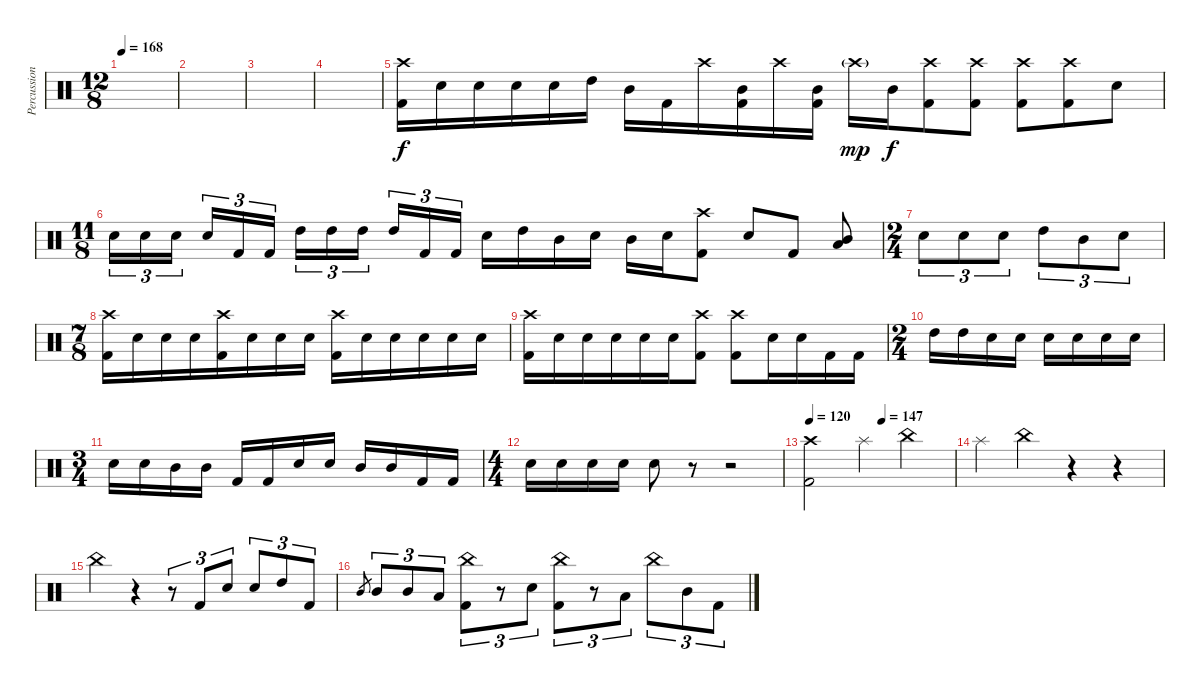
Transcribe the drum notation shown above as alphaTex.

\track ("Percussion" "Percussion") {instrument percussion}
\staff {score}
\articulation defaults
\ts (12 8)
\tempo 168
\clef neutral
\ks c
|
|
|
|
("Kick (hit) 2" "Crash high (hit)").16{volume 13} "Electric Snare (hit)".16 "Electric Snare (hit)".16 "Electric Snare (hit)".16 "Electric Snare (hit)".16 "High Tom (hit)".16 "Mid Tom (hit)".16 "Kick (hit) 2".16 "Crash high (hit)".16 ("Kick (hit) 2" "Mid Tom (hit)").16 "Crash high (hit)".16 ("Kick (hit) 2" "Mid Tom (hit)").16 "Crash high (hit)"{g}.16{dy mp} "Mid Tom (hit)".16{dy f} ("Crash high (hit)" "Kick (hit) 2").8 ("Crash high (hit)" "Kick (hit) 2").8 ("Crash high (hit)" "Kick (hit) 2").8 ("Crash high (hit)" "Kick (hit) 2").8 "Electric Snare (hit)".8 |
\ts (11 8)
"Electric Snare (hit)".16{tu (3 2)} "Electric Snare (hit)".16{tu (3 2)} "Electric Snare (hit)".16{tu (3 2)} "Electric Snare (hit)".16{tu (3 2)} "Kick (hit) 2".16{tu (3 2)} "Kick (hit) 2".16{tu (3 2)} "High Tom (hit)".16{tu (3 2)} "High Tom (hit)".16{tu (3 2)} "High Tom (hit)".16{tu (3 2)} "High Tom (hit)".16{tu (3 2)} "Kick (hit) 2".16{tu (3 2)} "Kick (hit) 2".16{tu (3 2)} "Electric Snare (hit)".16 "High Tom (hit)".16 "Mid Tom (hit)".16 "Electric Snare (hit)".16 "Mid Tom (hit)".16 "Electric Snare (hit)".16 ("Crash high (hit)" "Kick (hit) 2").8 "Electric Snare (hit)".8 "Kick (hit) 2".8 ("Mid Tom (hit)" "Low Tom (hit)").8 |
\ts (2 4)
"Electric Snare (hit)".8{tu (3 2)} "Electric Snare (hit)".8{tu (3 2)} "Electric Snare (hit)".8{tu (3 2)} "High Tom (hit)".8{tu (3 2)} "Mid Tom (hit)".8{tu (3 2)} "Electric Snare (hit)".8{tu (3 2)} |
\ts (7 8)
("Crash high (hit)" "Kick (hit) 2").16 "Electric Snare (hit)".16 "Electric Snare (hit)".16 "Electric Snare (hit)".16 ("Crash high (hit)" "Kick (hit) 2").16 "Electric Snare (hit)".16 "Electric Snare (hit)".16 "Electric Snare (hit)".16 ("Crash high (hit)" "Kick (hit) 2").16 "Electric Snare (hit)".16 "Electric Snare (hit)".16 "Electric Snare (hit)".16 "Electric Snare (hit)".16 "Electric Snare (hit)".16 |
("Crash high (hit)" "Kick (hit) 2").16 "Electric Snare (hit)".16 "Electric Snare (hit)".16 "Electric Snare (hit)".16 "Electric Snare (hit)".16 "Electric Snare (hit)".16 ("Crash high (hit)" "Kick (hit) 2").8 ("Crash high (hit)" "Kick (hit) 2").8 "Electric Snare (hit)".16 "Electric Snare (hit)".16 "Kick (hit) 2".16 "Kick (hit) 2".16 |
\ts (2 4)
"High Tom (hit)".16 "High Tom (hit)".16 "Electric Snare (hit)".16 "Electric Snare (hit)".16 "Electric Snare (hit)".16 "Electric Snare (hit)".16 "Electric Snare (hit)".16 "Electric Snare (hit)".16 |
\ts (3 4)
"Electric Snare (hit)".16 "Electric Snare (hit)".16 "Mid Tom (hit)".16 "Mid Tom (hit)".16 "Kick (hit) 2".16 "Kick (hit) 2".16 "Electric Snare (hit)".16 "Electric Snare (hit)".16 "Mid Tom (hit)".16 "Mid Tom (hit)".16 "Kick (hit) 2".16 "Kick (hit) 2".16 |
\ts (4 4)
"Electric Snare (hit)".16 "Electric Snare (hit)".16 "Electric Snare (hit)".16 "Electric Snare (hit)".16 "Electric Snare (hit)".8 r.8 r.2 |
\tempo 120
\tempo (147 0.5)
("Crash high (hit)" "Kick (hit) 2").2{volume 16} "Splash (hit)".4 "China (hit)".4 |
"Splash (hit)".4 "China (hit)".4 r.4 r.4 |
"China (hit)".4 r.4 r.8{tu (3 2)} "Kick (hit) 2".8{tu (3 2)} "Electric Snare (hit)".8{tu (3 2)} "Electric Snare (hit)".8{tu (3 2)} "High Tom (hit)".8{tu (3 2)} "Kick (hit) 2".8{tu (3 2)} |
"Mid Tom (hit)".8{gr} "Mid Tom (hit)".8{tu (3 2)} "Mid Tom (hit)".8{tu (3 2)} "Low Tom (hit)".8{tu (3 2)} ("China (hit)" "Kick (hit) 2").8{tu (3 2)} r.8{tu (3 2)} "Electric Snare (hit)".8{tu (3 2)} ("China (hit)" "Kick (hit) 2").8{tu (3 2)} r.8{tu (3 2)} "Low Tom (hit)".8{tu (3 2)} "China (hit)".8{tu (3 2)} "Mid Tom (hit)".8{tu (3 2)} "Kick (hit) 2".8{tu (3 2)}
